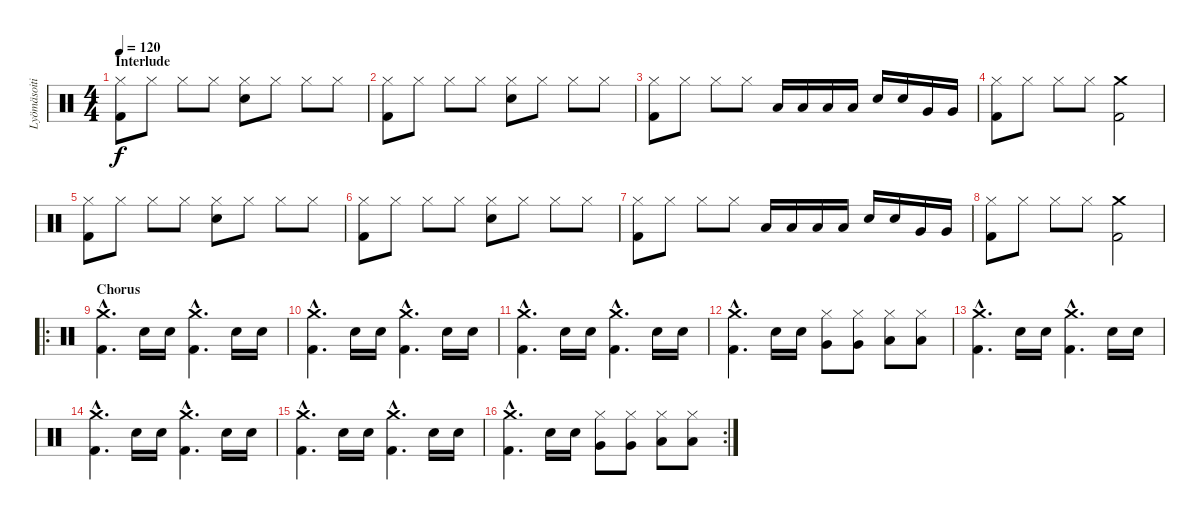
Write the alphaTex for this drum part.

\track ("Lyömäsoitin" "Lyömäsoiti") {instrument percussion}
\staff {score}
\articulation defaults
\ts (4 4)
\section ("" "Interlude")
\tempo 120
\clef neutral
\ks c
("Hi-Hat (closed)" "Kick (hit) 2").8{dy f} "Hi-Hat (closed)".8 "Hi-Hat (closed)".8 "Hi-Hat (closed)".8 ("Hi-Hat (closed)" "Electric Snare (hit)").8 "Hi-Hat (closed)".8 "Hi-Hat (closed)".8 "Hi-Hat (closed)".8 |
("Hi-Hat (closed)" "Kick (hit) 2").8 "Hi-Hat (closed)".8 "Hi-Hat (closed)".8 "Hi-Hat (closed)".8 ("Hi-Hat (closed)" "Electric Snare (hit)").8 "Hi-Hat (closed)".8 "Hi-Hat (closed)".8 "Hi-Hat (closed)".8 |
("Hi-Hat (closed)" "Kick (hit) 2").8 "Hi-Hat (closed)".8 "Hi-Hat (closed)".8 "Hi-Hat (closed)".8 "Low Tom (hit)".16 "Low Tom (hit)".16 "Low Floor Tom (hit)".16 "Low Floor Tom (hit)".16 "Snare (hit) 2".16 "Snare (hit) 2".16 "Very Low Tom (hit)".16 "Very Low Tom (hit)".16 |
("Hi-Hat (closed)" "Kick (hit) 2").8 "Hi-Hat (closed)".8 "Hi-Hat (closed)".8 "Hi-Hat (closed)".8 ("Crash medium (hit)" "Kick (hit) 2").2 |
("Hi-Hat (closed)" "Kick (hit) 2").8 "Hi-Hat (closed)".8 "Hi-Hat (closed)".8 "Hi-Hat (closed)".8 ("Hi-Hat (closed)" "Electric Snare (hit)").8 "Hi-Hat (closed)".8 "Hi-Hat (closed)".8 "Hi-Hat (closed)".8 |
("Hi-Hat (closed)" "Kick (hit) 2").8 "Hi-Hat (closed)".8 "Hi-Hat (closed)".8 "Hi-Hat (closed)".8 ("Hi-Hat (closed)" "Electric Snare (hit)").8 "Hi-Hat (closed)".8 "Hi-Hat (closed)".8 "Hi-Hat (closed)".8 |
("Hi-Hat (closed)" "Kick (hit) 2").8 "Hi-Hat (closed)".8 "Hi-Hat (closed)".8 "Hi-Hat (closed)".8 "Low Tom (hit)".16 "Low Tom (hit)".16 "Low Floor Tom (hit)".16 "Low Floor Tom (hit)".16 "Snare (hit) 2".16 "Snare (hit) 2".16 "Very Low Tom (hit)".16 "Very Low Tom (hit)".16 |
("Hi-Hat (closed)" "Kick (hit) 2").8 "Hi-Hat (closed)".8 "Hi-Hat (closed)".8 "Hi-Hat (closed)".8 ("Crash medium (hit)" "Kick (hit) 2").2 |
\ro
\section ("" "Chorus")
("Crash medium (hit)"{hac} "Kick (hit) 2"{hac}).4{d} "Electric Snare (hit)".16 "Electric Snare (hit)".16 ("Crash medium (hit)"{hac} "Kick (hit) 2"{hac}).4{d} "Electric Snare (hit)".16 "Electric Snare (hit)".16 |
("Crash medium (hit)"{hac} "Kick (hit) 2"{hac}).4{d} "Electric Snare (hit)".16 "Electric Snare (hit)".16 ("Crash medium (hit)"{hac} "Kick (hit) 2"{hac}).4{d} "Electric Snare (hit)".16 "Electric Snare (hit)".16 |
("Crash medium (hit)"{hac} "Kick (hit) 2"{hac}).4{d} "Electric Snare (hit)".16 "Electric Snare (hit)".16 ("Crash medium (hit)"{hac} "Kick (hit) 2"{hac}).4{d} "Electric Snare (hit)".16 "Electric Snare (hit)".16 |
("Crash medium (hit)"{hac} "Kick (hit) 2"{hac}).4{d} "Electric Snare (hit)".16 "Electric Snare (hit)".16 ("Hi-Hat (closed)" "Very Low Tom (hit)").8 ("Hi-Hat (closed)" "Very Low Tom (hit)").8 ("Hi-Hat (closed)" "Low Floor Tom (hit)").8 ("Hi-Hat (closed)" "Low Floor Tom (hit)").8 |
("Crash medium (hit)"{hac} "Kick (hit) 2"{hac}).4{d} "Electric Snare (hit)".16 "Electric Snare (hit)".16 ("Crash medium (hit)"{hac} "Kick (hit) 2"{hac}).4{d} "Electric Snare (hit)".16 "Electric Snare (hit)".16 |
("Crash medium (hit)"{hac} "Kick (hit) 2"{hac}).4{d} "Electric Snare (hit)".16 "Electric Snare (hit)".16 ("Crash medium (hit)"{hac} "Kick (hit) 2"{hac}).4{d} "Electric Snare (hit)".16 "Electric Snare (hit)".16 |
("Crash medium (hit)"{hac} "Kick (hit) 2"{hac}).4{d} "Electric Snare (hit)".16 "Electric Snare (hit)".16 ("Crash medium (hit)"{hac} "Kick (hit) 2"{hac}).4{d} "Electric Snare (hit)".16 "Electric Snare (hit)".16 |
\rc 2
("Crash medium (hit)"{hac} "Kick (hit) 2"{hac}).4{d} "Electric Snare (hit)".16 "Electric Snare (hit)".16 ("Hi-Hat (closed)" "Very Low Tom (hit)").8 ("Hi-Hat (closed)" "Very Low Tom (hit)").8 ("Hi-Hat (closed)" "Low Floor Tom (hit)").8 ("Hi-Hat (closed)" "Low Floor Tom (hit)").8
